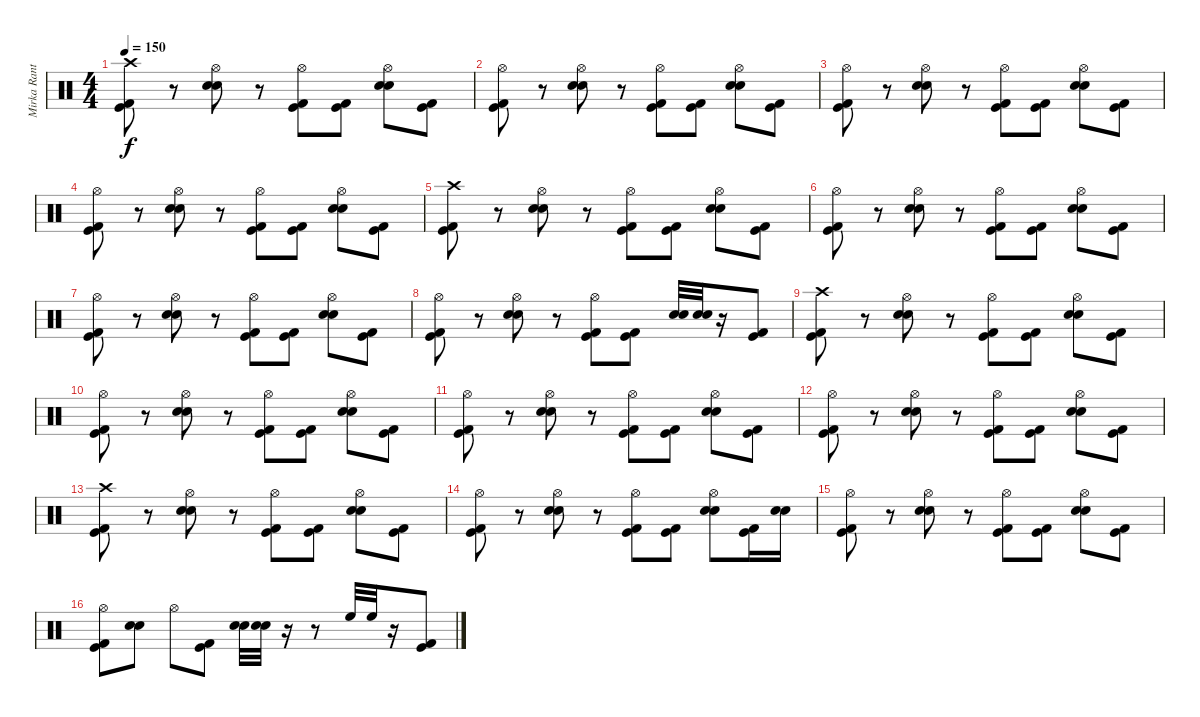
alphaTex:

\track ("Mirka Rantanen" "Mirka Rant") {instrument percussion}
\staff {score}
\articulation defaults
\ts (4 4)
\tempo 150
\clef neutral
\ks c
("Crash high (hit)" "Kick (hit)" "Kick (hit) 2").8{dy f} r.8 ("Hi-Hat (open)" "Electric Snare (hit)" "Snare (hit) 2").8 r.8 ("Hi-Hat (open)" "Kick (hit)" "Kick (hit) 2").8 ("Kick (hit)" "Kick (hit) 2").8 ("Hi-Hat (open)" "Electric Snare (hit)" "Snare (hit) 2").8 ("Kick (hit)" "Kick (hit) 2").8 |
("Hi-Hat (open)" "Kick (hit)" "Kick (hit) 2").8 r.8 ("Hi-Hat (open)" "Electric Snare (hit)" "Snare (hit) 2").8 r.8 ("Hi-Hat (open)" "Kick (hit)" "Kick (hit) 2").8 ("Kick (hit)" "Kick (hit) 2").8 ("Hi-Hat (open)" "Electric Snare (hit)" "Snare (hit) 2").8 ("Kick (hit)" "Kick (hit) 2").8 |
("Hi-Hat (open)" "Kick (hit)" "Kick (hit) 2").8 r.8 ("Hi-Hat (open)" "Electric Snare (hit)" "Snare (hit) 2").8 r.8 ("Hi-Hat (open)" "Kick (hit)" "Kick (hit) 2").8 ("Kick (hit)" "Kick (hit) 2").8 ("Hi-Hat (open)" "Electric Snare (hit)" "Snare (hit) 2").8 ("Kick (hit)" "Kick (hit) 2").8 |
("Hi-Hat (open)" "Kick (hit)" "Kick (hit) 2").8 r.8 ("Hi-Hat (open)" "Electric Snare (hit)" "Snare (hit) 2").8 r.8 ("Hi-Hat (open)" "Kick (hit)" "Kick (hit) 2").8 ("Kick (hit)" "Kick (hit) 2").8 ("Hi-Hat (open)" "Electric Snare (hit)" "Snare (hit) 2").8 ("Kick (hit)" "Kick (hit) 2").8 |
("Crash high (hit)" "Kick (hit)" "Kick (hit) 2").8 r.8 ("Hi-Hat (open)" "Electric Snare (hit)" "Snare (hit) 2").8 r.8 ("Hi-Hat (open)" "Kick (hit)" "Kick (hit) 2").8 ("Kick (hit)" "Kick (hit) 2").8 ("Hi-Hat (open)" "Electric Snare (hit)" "Snare (hit) 2").8 ("Kick (hit)" "Kick (hit) 2").8 |
("Hi-Hat (open)" "Kick (hit)" "Kick (hit) 2").8 r.8 ("Hi-Hat (open)" "Electric Snare (hit)" "Snare (hit) 2").8 r.8 ("Hi-Hat (open)" "Kick (hit)" "Kick (hit) 2").8 ("Kick (hit)" "Kick (hit) 2").8 ("Hi-Hat (open)" "Electric Snare (hit)" "Snare (hit) 2").8 ("Kick (hit)" "Kick (hit) 2").8 |
("Hi-Hat (open)" "Kick (hit)" "Kick (hit) 2").8 r.8 ("Hi-Hat (open)" "Electric Snare (hit)" "Snare (hit) 2").8 r.8 ("Hi-Hat (open)" "Kick (hit)" "Kick (hit) 2").8 ("Kick (hit)" "Kick (hit) 2").8 ("Hi-Hat (open)" "Electric Snare (hit)" "Snare (hit) 2").8 ("Kick (hit)" "Kick (hit) 2").8 |
("Hi-Hat (open)" "Kick (hit)" "Kick (hit) 2").8 r.8 ("Hi-Hat (open)" "Electric Snare (hit)" "Snare (hit) 2").8 r.8 ("Hi-Hat (open)" "Kick (hit)" "Kick (hit) 2").8 ("Kick (hit)" "Kick (hit) 2").8 ("Electric Snare (hit)" "Snare (hit) 2").32 ("Electric Snare (hit)" "Snare (hit) 2").32 r.16 ("Kick (hit)" "Kick (hit) 2").8 |
("Crash high (hit)" "Kick (hit)" "Kick (hit) 2").8 r.8 ("Hi-Hat (open)" "Electric Snare (hit)" "Snare (hit) 2").8 r.8 ("Hi-Hat (open)" "Kick (hit)" "Kick (hit) 2").8 ("Kick (hit)" "Kick (hit) 2").8 ("Hi-Hat (open)" "Electric Snare (hit)" "Snare (hit) 2").8 ("Kick (hit)" "Kick (hit) 2").8 |
("Hi-Hat (open)" "Kick (hit)" "Kick (hit) 2").8 r.8 ("Hi-Hat (open)" "Electric Snare (hit)" "Snare (hit) 2").8 r.8 ("Hi-Hat (open)" "Kick (hit)" "Kick (hit) 2").8 ("Kick (hit)" "Kick (hit) 2").8 ("Hi-Hat (open)" "Electric Snare (hit)" "Snare (hit) 2").8 ("Kick (hit)" "Kick (hit) 2").8 |
("Hi-Hat (open)" "Kick (hit)" "Kick (hit) 2").8 r.8 ("Hi-Hat (open)" "Electric Snare (hit)" "Snare (hit) 2").8 r.8 ("Hi-Hat (open)" "Kick (hit)" "Kick (hit) 2").8 ("Kick (hit)" "Kick (hit) 2").8 ("Hi-Hat (open)" "Electric Snare (hit)" "Snare (hit) 2").8 ("Kick (hit)" "Kick (hit) 2").8 |
("Hi-Hat (open)" "Kick (hit)" "Kick (hit) 2").8 r.8 ("Hi-Hat (open)" "Electric Snare (hit)" "Snare (hit) 2").8 r.8 ("Hi-Hat (open)" "Kick (hit)" "Kick (hit) 2").8 ("Kick (hit)" "Kick (hit) 2").8 ("Hi-Hat (open)" "Electric Snare (hit)" "Snare (hit) 2").8 ("Kick (hit)" "Kick (hit) 2").8 |
("Crash high (hit)" "Kick (hit)" "Kick (hit) 2").8 r.8 ("Hi-Hat (open)" "Electric Snare (hit)" "Snare (hit) 2").8 r.8 ("Hi-Hat (open)" "Kick (hit)" "Kick (hit) 2").8 ("Kick (hit)" "Kick (hit) 2").8 ("Hi-Hat (open)" "Electric Snare (hit)" "Snare (hit) 2").8 ("Kick (hit)" "Kick (hit) 2").8 |
("Hi-Hat (open)" "Kick (hit)" "Kick (hit) 2").8 r.8 ("Hi-Hat (open)" "Electric Snare (hit)" "Snare (hit) 2").8 r.8 ("Hi-Hat (open)" "Kick (hit)" "Kick (hit) 2").8 ("Kick (hit)" "Kick (hit) 2").8 ("Hi-Hat (open)" "Electric Snare (hit)" "Snare (hit) 2").8 ("Kick (hit)" "Kick (hit) 2").16 ("Electric Snare (hit)" "Snare (hit) 2").16 |
("Hi-Hat (open)" "Kick (hit)" "Kick (hit) 2").8 r.8 ("Hi-Hat (open)" "Electric Snare (hit)" "Snare (hit) 2").8 r.8 ("Hi-Hat (open)" "Kick (hit)" "Kick (hit) 2").8 ("Kick (hit)" "Kick (hit) 2").8 ("Hi-Hat (open)" "Electric Snare (hit)" "Snare (hit) 2").8 ("Kick (hit)" "Kick (hit) 2").8 |
("Hi-Hat (open)" "Kick (hit)" "Kick (hit) 2").8 ("Electric Snare (hit)" "Snare (hit) 2").8 "Hi-Hat (open)".8 ("Kick (hit)" "Kick (hit) 2").8 ("Electric Snare (hit)" "Snare (hit) 2").32 ("Electric Snare (hit)" "Snare (hit) 2").32 r.16 r.8 "High Floor Tom (hit)".32 "High Floor Tom (hit)".32 r.16 ("Kick (hit)" "Kick (hit) 2").8
